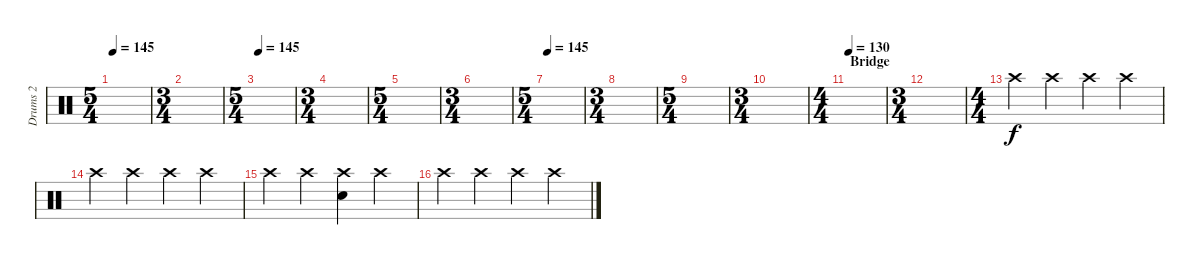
\track ("Drums 2" "Drums 2") {instrument percussion}
\staff {score}
\articulation defaults
\ts (5 4)
\tempo 145
\clef neutral
\ks c
|
\ts (3 4)
|
\ts (5 4)
\tempo 145
|
\ts (3 4)
|
\ts (5 4)
|
\ts (3 4)
|
\ts (5 4)
\tempo 145
|
\ts (3 4)
|
\ts (5 4)
|
\ts (3 4)
|
\ts (4 4)
\section ("" "Bridge")
\tempo 130
|
\ts (3 4)
|
\ts (4 4)
"Crash high (hit)".4 "Crash high (hit)".4 "Crash high (hit)".4 "Crash high (hit)".4 |
"Crash high (hit)".4 "Crash high (hit)".4 "Crash high (hit)".4 "Crash high (hit)".4 |
"Crash high (hit)".4 "Crash high (hit)".4 ("Crash high (hit)" "Electric Snare (hit)").4 "Crash high (hit)".4 |
"Crash high (hit)".4 "Crash high (hit)".4 "Crash high (hit)".4 "Crash high (hit)".4
